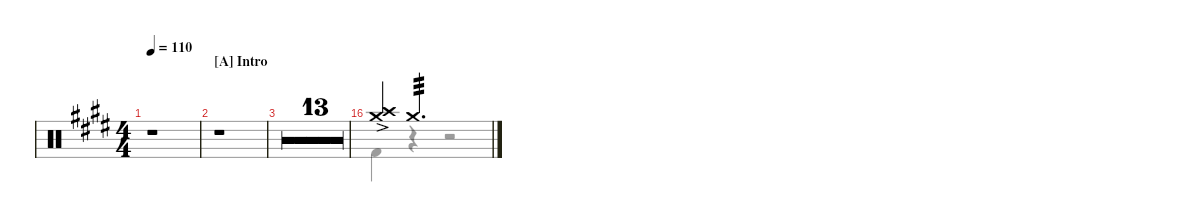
\defaultSystemsLayout 4
\hideDynamics
\bracketExtendMode nobrackets
\singleTrackTrackNamePolicy hidden
\multiTrackTrackNamePolicy hidden
\firstSystemTrackNameMode fullname
\firstSystemTrackNameOrientation horizontal
\otherSystemsTrackNameOrientation horizontal
\track ("Drums" "Drums") {multiBarRest instrument percussion}
\staff {score}
\articulation defaults
\voice
\ts (4 4)
\beaming (8 2 2 2 2)
\tempo 110
\clef neutral
\ks e
r.1{dy mf} |
\section ("A" "Intro")
r.1 |
r.1 |
r.1 |
r.1 |
r.1 |
\barLineRight lightlight
r.1 |
r.1 |
r.1 |
r.1 |
r.1 |
r.1 |
r.1 |
r.1 |
r.1 |
("Crash medium (hit)"{ac acc forcenatural} "Crash high (hit)"{ac acc forcenatural}).4 "Crash medium (hit)"{acc forcenatural}.2{d tp 3}
\voice
\clef neutral
\ottava regular
\simile none
\ks e
|
|
|
|
|
|
\barLineRight lightlight
|
|
|
|
|
|
|
|
|
"Kick (hit) 2"{acc forcenatural}.4 r.4 r.2
